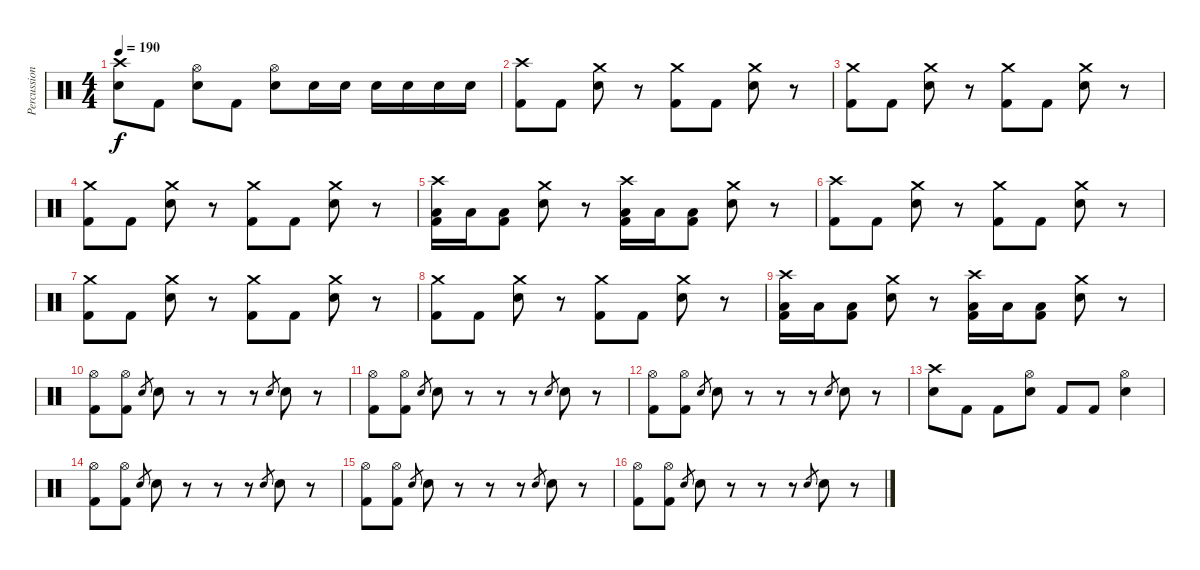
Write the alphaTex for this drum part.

\track ("Percussion" "Percussion") {instrument percussion}
\staff {score}
\articulation defaults
\ts (4 4)
\tempo 190
\clef neutral
\ks c
("Crash high (hit)" "Snare (hit) 2").8{dy f} "Kick (hit) 2".8 ("Hi-Hat (open)" "Snare (hit) 2").8 "Kick (hit) 2".8 ("Hi-Hat (open)" "Snare (hit) 2").8 "Snare (hit) 2".16 "Snare (hit) 2".16 "Snare (hit) 2".16 "Snare (hit) 2".16 "Snare (hit) 2".16 "Snare (hit) 2".16 |
("Crash high (hit)" "Kick (hit) 2").8 "Kick (hit) 2".8 ("Crash medium (hit)" "Snare (hit) 2").8 r.8 ("Crash medium (hit)" "Kick (hit) 2").8 "Kick (hit) 2".8 ("Crash medium (hit)" "Snare (hit) 2").8 r.8 |
("Crash medium (hit)" "Kick (hit) 2").8 "Kick (hit) 2".8 ("Crash medium (hit)" "Snare (hit) 2").8 r.8 ("Crash medium (hit)" "Kick (hit) 2").8 "Kick (hit) 2".8 ("Crash medium (hit)" "Snare (hit) 2").8 r.8 |
("Crash medium (hit)" "Kick (hit) 2").8 "Kick (hit) 2".8 ("Crash medium (hit)" "Snare (hit) 2").8 r.8 ("Crash medium (hit)" "Kick (hit) 2").8 "Kick (hit) 2".8 ("Crash medium (hit)" "Snare (hit) 2").8 r.8 |
("Crash high (hit)" "Low Floor Tom (hit)" "Kick (hit) 2").16 "Low Floor Tom (hit)".16 ("Low Floor Tom (hit)" "Kick (hit) 2").8 ("Crash medium (hit)" "Snare (hit) 2").8 r.8 ("Crash high (hit)" "Low Floor Tom (hit)" "Kick (hit) 2").16 "Low Floor Tom (hit)".16 ("Low Floor Tom (hit)" "Kick (hit) 2").8 ("Crash medium (hit)" "Snare (hit) 2").8 r.8 |
("Crash high (hit)" "Kick (hit) 2").8 "Kick (hit) 2".8 ("Crash medium (hit)" "Snare (hit) 2").8 r.8 ("Crash medium (hit)" "Kick (hit) 2").8 "Kick (hit) 2".8 ("Crash medium (hit)" "Snare (hit) 2").8 r.8 |
("Crash medium (hit)" "Kick (hit) 2").8 "Kick (hit) 2".8 ("Crash medium (hit)" "Snare (hit) 2").8 r.8 ("Crash medium (hit)" "Kick (hit) 2").8 "Kick (hit) 2".8 ("Crash medium (hit)" "Snare (hit) 2").8 r.8 |
("Crash medium (hit)" "Kick (hit) 2").8 "Kick (hit) 2".8 ("Crash medium (hit)" "Snare (hit) 2").8 r.8 ("Crash medium (hit)" "Kick (hit) 2").8 "Kick (hit) 2".8 ("Crash medium (hit)" "Snare (hit) 2").8 r.8 |
("Crash high (hit)" "Low Floor Tom (hit)" "Kick (hit) 2").16 "Low Floor Tom (hit)".16 ("Low Floor Tom (hit)" "Kick (hit) 2").8 ("Crash medium (hit)" "Snare (hit) 2").8 r.8 ("Crash high (hit)" "Low Floor Tom (hit)" "Kick (hit) 2").16 "Low Floor Tom (hit)".16 ("Low Floor Tom (hit)" "Kick (hit) 2").8 ("Crash medium (hit)" "Snare (hit) 2").8 r.8 |
("Hi-Hat (open)" "Kick (hit) 2").8 ("Hi-Hat (open)" "Kick (hit) 2").8 "Snare (hit) 2".8{gr} "Snare (hit) 2".8 r.8 r.8 r.8 "Snare (hit) 2".8{gr} "Snare (hit) 2".8 r.8 |
("Hi-Hat (open)" "Kick (hit) 2").8 ("Hi-Hat (open)" "Kick (hit) 2").8 "Snare (hit) 2".8{gr} "Snare (hit) 2".8 r.8 r.8 r.8 "Snare (hit) 2".8{gr} "Snare (hit) 2".8 r.8 |
("Hi-Hat (open)" "Kick (hit) 2").8 ("Hi-Hat (open)" "Kick (hit) 2").8 "Snare (hit) 2".8{gr} "Snare (hit) 2".8 r.8 r.8 r.8 "Snare (hit) 2".8{gr} "Snare (hit) 2".8 r.8 |
("Crash high (hit)" "Snare (hit) 2").8 "Kick (hit) 2".8 "Kick (hit) 2".8 ("Hi-Hat (open)" "Snare (hit) 2").8 "Kick (hit) 2".8 "Kick (hit) 2".8 ("Hi-Hat (open)" "Snare (hit) 2").4 |
("Hi-Hat (open)" "Kick (hit) 2").8 ("Hi-Hat (open)" "Kick (hit) 2").8 "Snare (hit) 2".8{gr} "Snare (hit) 2".8 r.8 r.8 r.8 "Snare (hit) 2".8{gr} "Snare (hit) 2".8 r.8 |
("Hi-Hat (open)" "Kick (hit) 2").8 ("Hi-Hat (open)" "Kick (hit) 2").8 "Snare (hit) 2".8{gr} "Snare (hit) 2".8 r.8 r.8 r.8 "Snare (hit) 2".8{gr} "Snare (hit) 2".8 r.8 |
("Hi-Hat (open)" "Kick (hit) 2").8 ("Hi-Hat (open)" "Kick (hit) 2").8 "Snare (hit) 2".8{gr} "Snare (hit) 2".8 r.8 r.8 r.8 "Snare (hit) 2".8{gr} "Snare (hit) 2".8 r.8
